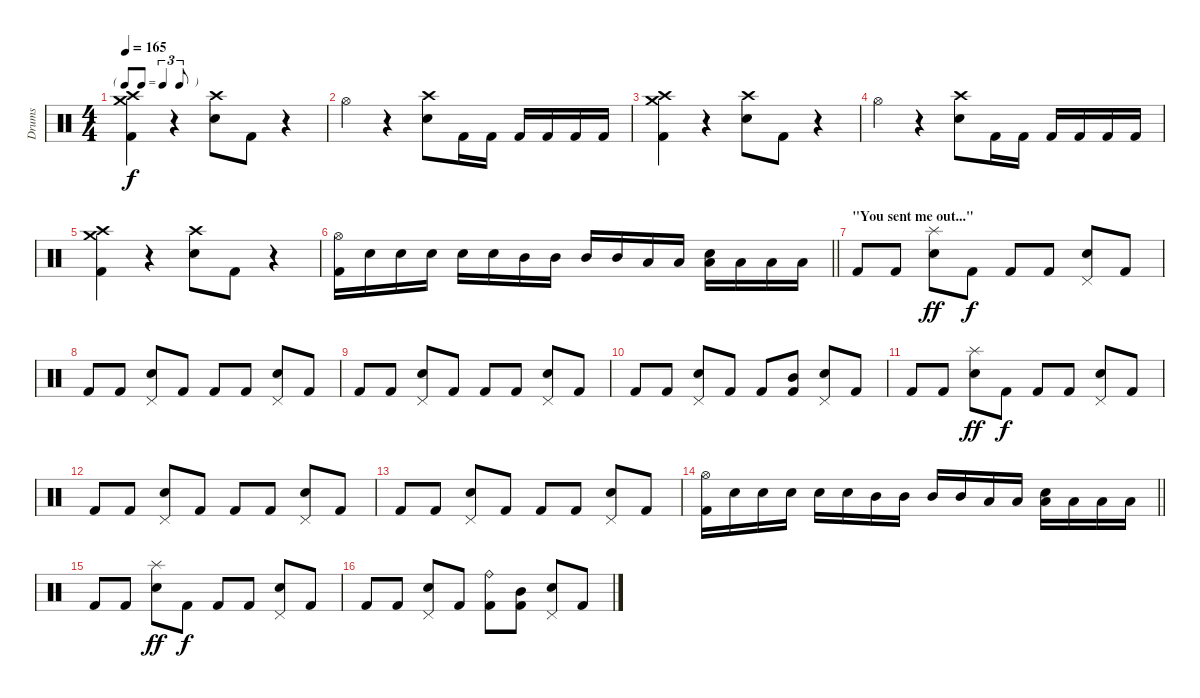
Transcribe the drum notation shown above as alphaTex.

\track ("Drums" "Drums") {instrument percussion}
\staff {score}
\articulation defaults
\ts (4 4)
\tf triplet8th
\tempo 165
\clef neutral
\ks c
("Crash high (hit)" "Crash medium (hit)" "Kick (hit) 2").4{dy f} r.4 ("Crash high (hit)" "Electric Snare (hit)").8 "Kick (hit) 2".8 r.4 |
"Hi-Hat (open)".4 r.4 ("Crash high (hit)" "Electric Snare (hit)").8 "Kick (hit) 2".16 "Kick (hit) 2".16 "Kick (hit) 2".16 "Kick (hit) 2".16 "Kick (hit) 2".16 "Kick (hit) 2".16 |
("Crash high (hit)" "Crash medium (hit)" "Kick (hit) 2").4 r.4 ("Crash high (hit)" "Electric Snare (hit)").8 "Kick (hit) 2".8 r.4 |
"Hi-Hat (open)".4 r.4 ("Crash high (hit)" "Electric Snare (hit)").8 "Kick (hit) 2".16 "Kick (hit) 2".16 "Kick (hit) 2".16 "Kick (hit) 2".16 "Kick (hit) 2".16 "Kick (hit) 2".16 |
("Crash high (hit)" "Crash medium (hit)" "Kick (hit) 2").4 r.4 ("Crash high (hit)" "Electric Snare (hit)").8 "Kick (hit) 2".8 r.4 |
\barLineRight lightlight
("Hi-Hat (open)" "Kick (hit) 2").16 "Electric Snare (hit)".16 "Electric Snare (hit)".16 "Electric Snare (hit)".16 "Electric Snare (hit)".16 "Electric Snare (hit)".16 "Mid Tom (hit)".16 "Mid Tom (hit)".16 "Mid Tom (hit)".16 "Mid Tom (hit)".16 "Low Tom (hit)".16 "Low Tom (hit)".16 ("Low Tom (hit)" "Electric Snare (hit)").16 "Low Tom (hit)".16 "Low Tom (hit)".16 "Low Tom (hit)".16 |
\section ("" "\"You sent me out...\"")
"Kick (hit) 2".8 "Kick (hit) 2".8 ("Splash (hit)" "Electric Snare (hit)").8{dy ff} "Kick (hit) 2".8{dy f} "Kick (hit) 2".8 "Kick (hit) 2".8 ("Pedal Hi-Hat (hit)" "Electric Snare (hit)").8 "Kick (hit) 2".8 |
"Kick (hit) 2".8 "Kick (hit) 2".8 ("Pedal Hi-Hat (hit)" "Electric Snare (hit)").8 "Kick (hit) 2".8 "Kick (hit) 2".8 "Kick (hit) 2".8 ("Pedal Hi-Hat (hit)" "Electric Snare (hit)").8 "Kick (hit) 2".8 |
"Kick (hit) 2".8 "Kick (hit) 2".8 ("Pedal Hi-Hat (hit)" "Electric Snare (hit)").8 "Kick (hit) 2".8 "Kick (hit) 2".8 "Kick (hit) 2".8 ("Pedal Hi-Hat (hit)" "Electric Snare (hit)").8 "Kick (hit) 2".8 |
"Kick (hit) 2".8 "Kick (hit) 2".8 ("Pedal Hi-Hat (hit)" "Electric Snare (hit)").8 "Kick (hit) 2".8 "Kick (hit) 2".8 ("Mid Tom (hit)" "Kick (hit) 2").8 ("Pedal Hi-Hat (hit)" "Electric Snare (hit)").8 "Kick (hit) 2".8 |
"Kick (hit) 2".8 "Kick (hit) 2".8 ("Splash (hit)" "Electric Snare (hit)").8{dy ff} "Kick (hit) 2".8{dy f} "Kick (hit) 2".8 "Kick (hit) 2".8 ("Pedal Hi-Hat (hit)" "Electric Snare (hit)").8 "Kick (hit) 2".8 |
"Kick (hit) 2".8 "Kick (hit) 2".8 ("Pedal Hi-Hat (hit)" "Electric Snare (hit)").8 "Kick (hit) 2".8 "Kick (hit) 2".8 "Kick (hit) 2".8 ("Pedal Hi-Hat (hit)" "Electric Snare (hit)").8 "Kick (hit) 2".8 |
"Kick (hit) 2".8 "Kick (hit) 2".8 ("Pedal Hi-Hat (hit)" "Electric Snare (hit)").8 "Kick (hit) 2".8 "Kick (hit) 2".8 "Kick (hit) 2".8 ("Pedal Hi-Hat (hit)" "Electric Snare (hit)").8 "Kick (hit) 2".8 |
\barLineRight lightlight
("Hi-Hat (open)" "Kick (hit) 2").16 "Electric Snare (hit)".16 "Electric Snare (hit)".16 "Electric Snare (hit)".16 "Electric Snare (hit)".16 "Electric Snare (hit)".16 "Mid Tom (hit)".16 "Mid Tom (hit)".16 "Mid Tom (hit)".16 "Mid Tom (hit)".16 "Low Tom (hit)".16 "Low Tom (hit)".16 ("Low Tom (hit)" "Electric Snare (hit)").16 "Low Tom (hit)".16 "Low Tom (hit)".16 "Low Tom (hit)".16 |
"Kick (hit) 2".8 "Kick (hit) 2".8 ("Splash (hit)" "Electric Snare (hit)").8{dy ff} "Kick (hit) 2".8{dy f} "Kick (hit) 2".8 "Kick (hit) 2".8 ("Pedal Hi-Hat (hit)" "Electric Snare (hit)").8 "Kick (hit) 2".8 |
"Kick (hit) 2".8 "Kick (hit) 2".8 ("Pedal Hi-Hat (hit)" "Electric Snare (hit)").8 "Kick (hit) 2".8 ("Ride (bell)" "Kick (hit) 2").8 ("Mid Tom (hit)" "Kick (hit) 2").8 ("Pedal Hi-Hat (hit)" "Electric Snare (hit)").8 "Kick (hit) 2".8
